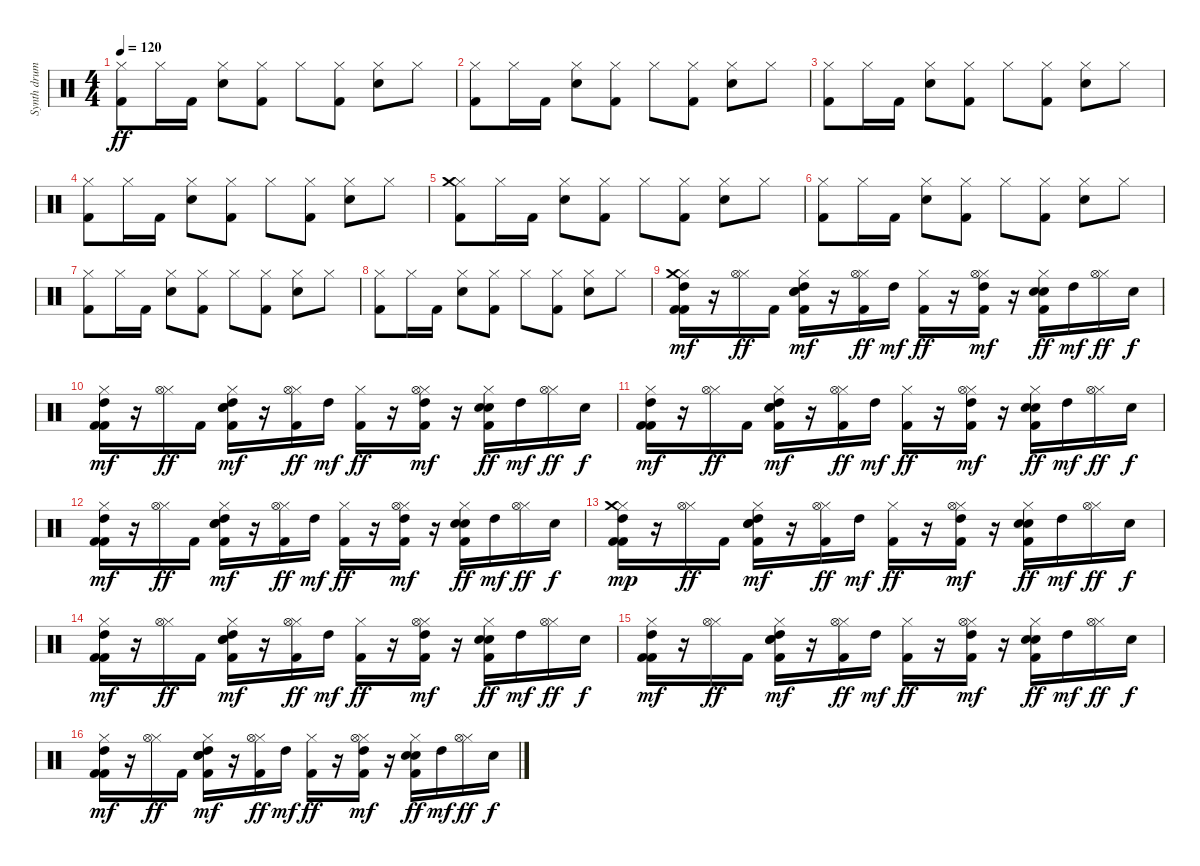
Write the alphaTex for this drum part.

\track ("Synth drums" "Synth drum") {instrument percussion}
\staff {score}
\articulation defaults
\ts (4 4)
\tempo 120
\clef neutral
\ks c
("Kick (hit) 2" "Hi-Hat (closed)").8{dy ff} "Hi-Hat (closed)".16 "Kick (hit) 2".16 ("Snare (hit) 2" "Hi-Hat (closed)").8 ("Kick (hit) 2" "Hi-Hat (closed)").8 "Hi-Hat (closed)".8 ("Kick (hit) 2" "Hi-Hat (closed)").8 ("Snare (hit) 2" "Hi-Hat (closed)").8 "Hi-Hat (closed)".8 |
("Kick (hit) 2" "Hi-Hat (closed)").8 "Hi-Hat (closed)".16 "Kick (hit) 2".16 ("Snare (hit) 2" "Hi-Hat (closed)").8 ("Kick (hit) 2" "Hi-Hat (closed)").8 "Hi-Hat (closed)".8 ("Kick (hit) 2" "Hi-Hat (closed)").8 ("Snare (hit) 2" "Hi-Hat (closed)").8 "Hi-Hat (closed)".8 |
("Kick (hit) 2" "Hi-Hat (closed)").8 "Hi-Hat (closed)".16 "Kick (hit) 2".16 ("Snare (hit) 2" "Hi-Hat (closed)").8 ("Kick (hit) 2" "Hi-Hat (closed)").8 "Hi-Hat (closed)".8 ("Kick (hit) 2" "Hi-Hat (closed)").8 ("Snare (hit) 2" "Hi-Hat (closed)").8 "Hi-Hat (closed)".8 |
("Kick (hit) 2" "Hi-Hat (closed)").8 "Hi-Hat (closed)".16 "Kick (hit) 2".16 ("Snare (hit) 2" "Hi-Hat (closed)").8 ("Kick (hit) 2" "Hi-Hat (closed)").8 "Hi-Hat (closed)".8 ("Kick (hit) 2" "Hi-Hat (closed)").8 ("Snare (hit) 2" "Hi-Hat (closed)").8 "Hi-Hat (closed)".8 |
("Kick (hit) 2" "Hi-Hat (closed)" "Crash medium (hit)").8 "Hi-Hat (closed)".16 "Kick (hit) 2".16 ("Snare (hit) 2" "Hi-Hat (closed)").8 ("Kick (hit) 2" "Hi-Hat (closed)").8 "Hi-Hat (closed)".8 ("Kick (hit) 2" "Hi-Hat (closed)").8 ("Snare (hit) 2" "Hi-Hat (closed)").8 "Hi-Hat (closed)".8 |
("Kick (hit) 2" "Hi-Hat (closed)").8 "Hi-Hat (closed)".16 "Kick (hit) 2".16 ("Snare (hit) 2" "Hi-Hat (closed)").8 ("Kick (hit) 2" "Hi-Hat (closed)").8 "Hi-Hat (closed)".8 ("Kick (hit) 2" "Hi-Hat (closed)").8 ("Snare (hit) 2" "Hi-Hat (closed)").8 "Hi-Hat (closed)".8 |
("Kick (hit) 2" "Hi-Hat (closed)").8 "Hi-Hat (closed)".16 "Kick (hit) 2".16 ("Snare (hit) 2" "Hi-Hat (closed)").8 ("Kick (hit) 2" "Hi-Hat (closed)").8 "Hi-Hat (closed)".8 ("Kick (hit) 2" "Hi-Hat (closed)").8 ("Snare (hit) 2" "Hi-Hat (closed)").8 "Hi-Hat (closed)".8 |
("Kick (hit) 2" "Hi-Hat (closed)").8 "Hi-Hat (closed)".16 "Kick (hit) 2".16 ("Snare (hit) 2" "Hi-Hat (closed)").8 ("Kick (hit) 2" "Hi-Hat (closed)").8 "Hi-Hat (closed)".8 ("Kick (hit) 2" "Hi-Hat (closed)").8 ("Snare (hit) 2" "Hi-Hat (closed)").8 "Hi-Hat (closed)".8 |
("Kick (hit) 2" "Hi-Hat (closed)" "Kick (hit) 2" "High Tom (hit)" "Crash medium (hit)").16{dy mf} r.16 ("Hi-Hat (closed)" "Hi-Hat (open)").16{dy ff} "Kick (hit) 2".16 ("Snare (hit) 2" "Hi-Hat (closed)" "Kick (hit) 2" "Snare (hit) 2" "High Tom (hit)").16{dy mf} r.16 ("Kick (hit) 2" "Hi-Hat (closed)" "Hi-Hat (open)").16{dy ff} "High Tom (hit)".16{dy mf} ("Hi-Hat (closed)" "Kick (hit) 2").16{dy ff} r.16 ("Kick (hit) 2" "Hi-Hat (closed)" "Hi-Hat (open)" "High Tom (hit)").16{dy mf} r.16 ("Snare (hit) 2" "Hi-Hat (closed)" "Kick (hit) 2" "Snare (hit) 2").16{dy ff} "High Tom (hit)".16{dy mf} ("Hi-Hat (closed)" "Hi-Hat (open)").16{dy ff} "Snare (hit) 2".16{dy f} |
("Kick (hit) 2" "Hi-Hat (closed)" "Kick (hit) 2" "High Tom (hit)").16{dy mf} r.16 ("Hi-Hat (closed)" "Hi-Hat (open)").16{dy ff} "Kick (hit) 2".16 ("Snare (hit) 2" "Hi-Hat (closed)" "Kick (hit) 2" "Snare (hit) 2" "High Tom (hit)").16{dy mf} r.16 ("Kick (hit) 2" "Hi-Hat (closed)" "Hi-Hat (open)").16{dy ff} "High Tom (hit)".16{dy mf} ("Hi-Hat (closed)" "Kick (hit) 2").16{dy ff} r.16 ("Kick (hit) 2" "Hi-Hat (closed)" "Hi-Hat (open)" "High Tom (hit)").16{dy mf} r.16 ("Snare (hit) 2" "Hi-Hat (closed)" "Kick (hit) 2" "Snare (hit) 2").16{dy ff} "High Tom (hit)".16{dy mf} ("Hi-Hat (closed)" "Hi-Hat (open)").16{dy ff} "Snare (hit) 2".16{dy f} |
("Kick (hit) 2" "Hi-Hat (closed)" "Kick (hit) 2" "High Tom (hit)").16{dy mf} r.16 ("Hi-Hat (closed)" "Hi-Hat (open)").16{dy ff} "Kick (hit) 2".16 ("Snare (hit) 2" "Hi-Hat (closed)" "Kick (hit) 2" "Snare (hit) 2" "High Tom (hit)").16{dy mf} r.16 ("Kick (hit) 2" "Hi-Hat (closed)" "Hi-Hat (open)").16{dy ff} "High Tom (hit)".16{dy mf} ("Hi-Hat (closed)" "Kick (hit) 2").16{dy ff} r.16 ("Kick (hit) 2" "Hi-Hat (closed)" "Hi-Hat (open)" "High Tom (hit)").16{dy mf} r.16 ("Snare (hit) 2" "Hi-Hat (closed)" "Kick (hit) 2" "Snare (hit) 2").16{dy ff} "High Tom (hit)".16{dy mf} ("Hi-Hat (closed)" "Hi-Hat (open)").16{dy ff} "Snare (hit) 2".16{dy f} |
("Kick (hit) 2" "Hi-Hat (closed)" "Kick (hit) 2" "High Tom (hit)").16{dy mf} r.16 ("Hi-Hat (closed)" "Hi-Hat (open)").16{dy ff} "Kick (hit) 2".16 ("Snare (hit) 2" "Hi-Hat (closed)" "Kick (hit) 2" "Snare (hit) 2" "High Tom (hit)").16{dy mf} r.16 ("Kick (hit) 2" "Hi-Hat (closed)" "Hi-Hat (open)").16{dy ff} "High Tom (hit)".16{dy mf} ("Hi-Hat (closed)" "Kick (hit) 2").16{dy ff} r.16 ("Kick (hit) 2" "Hi-Hat (closed)" "Hi-Hat (open)" "High Tom (hit)").16{dy mf} r.16 ("Snare (hit) 2" "Hi-Hat (closed)" "Kick (hit) 2" "Snare (hit) 2").16{dy ff} "High Tom (hit)".16{dy mf} ("Hi-Hat (closed)" "Hi-Hat (open)").16{dy ff} "Snare (hit) 2".16{dy f} |
("Kick (hit) 2" "Hi-Hat (closed)" "Kick (hit) 2" "High Tom (hit)" "Crash medium (hit)").16{dy mp} r.16 ("Hi-Hat (closed)" "Hi-Hat (open)").16{dy ff} "Kick (hit) 2".16 ("Snare (hit) 2" "Hi-Hat (closed)" "Kick (hit) 2" "Snare (hit) 2" "High Tom (hit)").16{dy mf} r.16 ("Kick (hit) 2" "Hi-Hat (closed)" "Hi-Hat (open)").16{dy ff} "High Tom (hit)".16{dy mf} ("Hi-Hat (closed)" "Kick (hit) 2").16{dy ff} r.16 ("Kick (hit) 2" "Hi-Hat (closed)" "Hi-Hat (open)" "High Tom (hit)").16{dy mf} r.16 ("Snare (hit) 2" "Hi-Hat (closed)" "Kick (hit) 2" "Snare (hit) 2").16{dy ff} "High Tom (hit)".16{dy mf} ("Hi-Hat (closed)" "Hi-Hat (open)").16{dy ff} "Snare (hit) 2".16{dy f} |
("Kick (hit) 2" "Hi-Hat (closed)" "Kick (hit) 2" "High Tom (hit)").16{dy mf} r.16 ("Hi-Hat (closed)" "Hi-Hat (open)").16{dy ff} "Kick (hit) 2".16 ("Snare (hit) 2" "Hi-Hat (closed)" "Kick (hit) 2" "Snare (hit) 2" "High Tom (hit)").16{dy mf} r.16 ("Kick (hit) 2" "Hi-Hat (closed)" "Hi-Hat (open)").16{dy ff} "High Tom (hit)".16{dy mf} ("Hi-Hat (closed)" "Kick (hit) 2").16{dy ff} r.16 ("Kick (hit) 2" "Hi-Hat (closed)" "Hi-Hat (open)" "High Tom (hit)").16{dy mf} r.16 ("Snare (hit) 2" "Hi-Hat (closed)" "Kick (hit) 2" "Snare (hit) 2").16{dy ff} "High Tom (hit)".16{dy mf} ("Hi-Hat (closed)" "Hi-Hat (open)").16{dy ff} "Snare (hit) 2".16{dy f} |
("Kick (hit) 2" "Hi-Hat (closed)" "Kick (hit) 2" "High Tom (hit)").16{dy mf} r.16 ("Hi-Hat (closed)" "Hi-Hat (open)").16{dy ff} "Kick (hit) 2".16 ("Snare (hit) 2" "Hi-Hat (closed)" "Kick (hit) 2" "Snare (hit) 2" "High Tom (hit)").16{dy mf} r.16 ("Kick (hit) 2" "Hi-Hat (closed)" "Hi-Hat (open)").16{dy ff} "High Tom (hit)".16{dy mf} ("Hi-Hat (closed)" "Kick (hit) 2").16{dy ff} r.16 ("Kick (hit) 2" "Hi-Hat (closed)" "Hi-Hat (open)" "High Tom (hit)").16{dy mf} r.16 ("Snare (hit) 2" "Hi-Hat (closed)" "Kick (hit) 2" "Snare (hit) 2").16{dy ff} "High Tom (hit)".16{dy mf} ("Hi-Hat (closed)" "Hi-Hat (open)").16{dy ff} "Snare (hit) 2".16{dy f} |
("Kick (hit) 2" "Hi-Hat (closed)" "Kick (hit) 2" "High Tom (hit)").16{dy mf} r.16 ("Hi-Hat (closed)" "Hi-Hat (open)").16{dy ff} "Kick (hit) 2".16 ("Snare (hit) 2" "Hi-Hat (closed)" "Kick (hit) 2" "Snare (hit) 2" "High Tom (hit)").16{dy mf} r.16 ("Kick (hit) 2" "Hi-Hat (closed)" "Hi-Hat (open)").16{dy ff} "High Tom (hit)".16{dy mf} ("Hi-Hat (closed)" "Kick (hit) 2").16{dy ff} r.16 ("Kick (hit) 2" "Hi-Hat (closed)" "Hi-Hat (open)" "High Tom (hit)").16{dy mf} r.16 ("Snare (hit) 2" "Hi-Hat (closed)" "Kick (hit) 2" "Snare (hit) 2").16{dy ff} "High Tom (hit)".16{dy mf} ("Hi-Hat (closed)" "Hi-Hat (open)").16{dy ff} "Snare (hit) 2".16{dy f}
